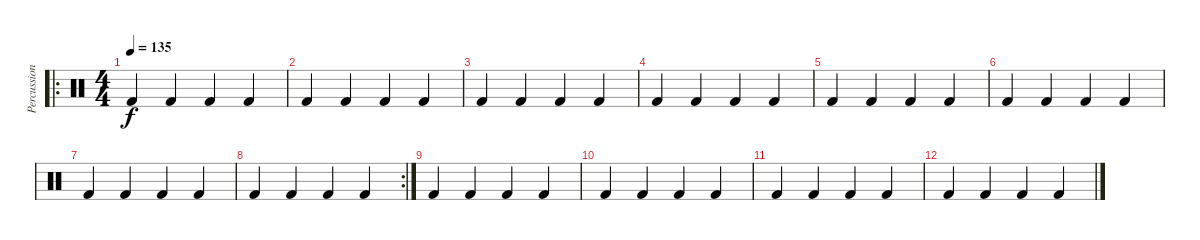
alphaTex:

\track ("Percussion" "Percussion") {instrument percussion}
\staff {score}
\articulation defaults
\ro
\ts (4 4)
\tempo 135
\clef neutral
\ks c "Kick (hit) 2".4{dy f} "Kick (hit) 2".4 "Kick (hit) 2".4 "Kick (hit) 2".4
|
"Kick (hit) 2".4 "Kick (hit) 2".4 "Kick (hit) 2".4 "Kick (hit) 2".4 |
"Kick (hit) 2".4 "Kick (hit) 2".4 "Kick (hit) 2".4 "Kick (hit) 2".4 |
"Kick (hit) 2".4 "Kick (hit) 2".4 "Kick (hit) 2".4 "Kick (hit) 2".4 |
"Kick (hit) 2".4 "Kick (hit) 2".4 "Kick (hit) 2".4 "Kick (hit) 2".4 |
"Kick (hit) 2".4 "Kick (hit) 2".4 "Kick (hit) 2".4 "Kick (hit) 2".4 |
"Kick (hit) 2".4 "Kick (hit) 2".4 "Kick (hit) 2".4 "Kick (hit) 2".4 |
\rc 2 "Kick (hit) 2".4 "Kick (hit) 2".4 "Kick (hit) 2".4 "Kick (hit) 2".4
|
"Kick (hit) 2".4 "Kick (hit) 2".4 "Kick (hit) 2".4 "Kick (hit) 2".4 |
"Kick (hit) 2".4 "Kick (hit) 2".4 "Kick (hit) 2".4 "Kick (hit) 2".4 |
"Kick (hit) 2".4 "Kick (hit) 2".4 "Kick (hit) 2".4 "Kick (hit) 2".4 |
"Kick (hit) 2".4 "Kick (hit) 2".4 "Kick (hit) 2".4 "Kick (hit) 2".4
